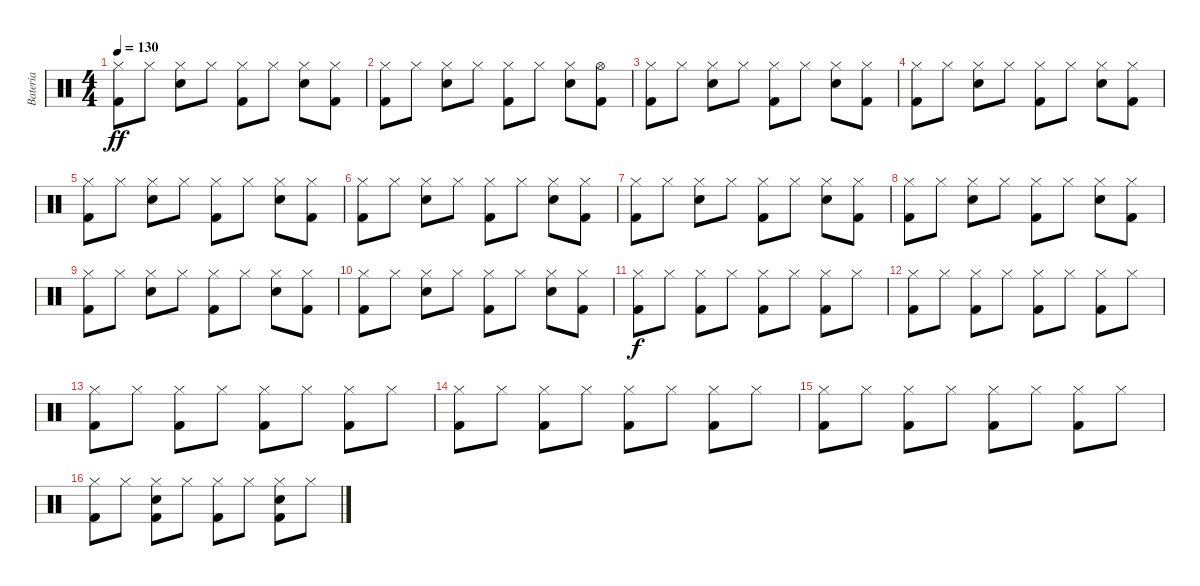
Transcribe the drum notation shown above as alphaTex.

\track ("Bateria" "Bateria") {instrument percussion}
\staff {score}
\articulation defaults
\ts (4 4)
\tempo 130
\clef neutral
\ks c
("Hi-Hat (closed)" "Kick (hit) 2").8{dy ff} "Hi-Hat (closed)".8 ("Hi-Hat (closed)" "Snare (hit) 2").8 "Hi-Hat (closed)".8 ("Hi-Hat (closed)" "Kick (hit) 2").8 "Hi-Hat (closed)".8 ("Hi-Hat (closed)" "Snare (hit) 2").8 ("Hi-Hat (closed)" "Kick (hit) 2").8 |
("Hi-Hat (closed)" "Kick (hit) 2").8 "Hi-Hat (closed)".8 ("Hi-Hat (closed)" "Snare (hit) 2").8 "Hi-Hat (closed)".8 ("Hi-Hat (closed)" "Kick (hit) 2").8 "Hi-Hat (closed)".8 ("Hi-Hat (closed)" "Snare (hit) 2").8 ("Hi-Hat (open)" "Kick (hit) 2").8 |
("Hi-Hat (closed)" "Kick (hit) 2").8 "Hi-Hat (closed)".8 ("Hi-Hat (closed)" "Snare (hit) 2").8 "Hi-Hat (closed)".8 ("Hi-Hat (closed)" "Kick (hit) 2").8 "Hi-Hat (closed)".8 ("Hi-Hat (closed)" "Snare (hit) 2").8 ("Hi-Hat (closed)" "Kick (hit) 2").8 |
("Hi-Hat (closed)" "Kick (hit) 2").8 "Hi-Hat (closed)".8 ("Hi-Hat (closed)" "Snare (hit) 2").8 "Hi-Hat (closed)".8 ("Hi-Hat (closed)" "Kick (hit) 2").8 "Hi-Hat (closed)".8 ("Hi-Hat (closed)" "Snare (hit) 2").8 ("Hi-Hat (closed)" "Kick (hit) 2").8 |
("Hi-Hat (closed)" "Kick (hit) 2").8 "Hi-Hat (closed)".8 ("Hi-Hat (closed)" "Snare (hit) 2").8 "Hi-Hat (closed)".8 ("Hi-Hat (closed)" "Kick (hit) 2").8 "Hi-Hat (closed)".8 ("Hi-Hat (closed)" "Snare (hit) 2").8 ("Hi-Hat (closed)" "Kick (hit) 2").8 |
("Hi-Hat (closed)" "Kick (hit) 2").8 "Hi-Hat (closed)".8 ("Hi-Hat (closed)" "Snare (hit) 2").8 "Hi-Hat (closed)".8 ("Hi-Hat (closed)" "Kick (hit) 2").8 "Hi-Hat (closed)".8 ("Hi-Hat (closed)" "Snare (hit) 2").8 ("Hi-Hat (closed)" "Kick (hit) 2").8 |
("Hi-Hat (closed)" "Kick (hit) 2").8 "Hi-Hat (closed)".8 ("Hi-Hat (closed)" "Snare (hit) 2").8 "Hi-Hat (closed)".8 ("Hi-Hat (closed)" "Kick (hit) 2").8 "Hi-Hat (closed)".8 ("Hi-Hat (closed)" "Snare (hit) 2").8 ("Hi-Hat (closed)" "Kick (hit) 2").8 |
("Hi-Hat (closed)" "Kick (hit) 2").8 "Hi-Hat (closed)".8 ("Hi-Hat (closed)" "Snare (hit) 2").8 "Hi-Hat (closed)".8 ("Hi-Hat (closed)" "Kick (hit) 2").8 "Hi-Hat (closed)".8 ("Hi-Hat (closed)" "Snare (hit) 2").8 ("Hi-Hat (closed)" "Kick (hit) 2").8 |
("Hi-Hat (closed)" "Kick (hit) 2").8 "Hi-Hat (closed)".8 ("Hi-Hat (closed)" "Snare (hit) 2").8 "Hi-Hat (closed)".8 ("Hi-Hat (closed)" "Kick (hit) 2").8 "Hi-Hat (closed)".8 ("Hi-Hat (closed)" "Snare (hit) 2").8 ("Hi-Hat (closed)" "Kick (hit) 2").8 |
("Hi-Hat (closed)" "Kick (hit) 2").8 "Hi-Hat (closed)".8 ("Hi-Hat (closed)" "Snare (hit) 2").8 "Hi-Hat (closed)".8 ("Hi-Hat (closed)" "Kick (hit) 2").8 "Hi-Hat (closed)".8 ("Hi-Hat (closed)" "Snare (hit) 2").8 ("Hi-Hat (closed)" "Kick (hit) 2").8 |
("Hi-Hat (closed)" "Kick (hit) 2").8{dy f} "Hi-Hat (closed)".8 ("Hi-Hat (closed)" "Kick (hit) 2").8 "Hi-Hat (closed)".8 ("Hi-Hat (closed)" "Kick (hit) 2").8 "Hi-Hat (closed)".8 ("Hi-Hat (closed)" "Kick (hit) 2").8 "Hi-Hat (closed)".8 |
("Hi-Hat (closed)" "Kick (hit) 2").8 "Hi-Hat (closed)".8 ("Hi-Hat (closed)" "Kick (hit) 2").8 "Hi-Hat (closed)".8 ("Hi-Hat (closed)" "Kick (hit) 2").8 "Hi-Hat (closed)".8 ("Hi-Hat (closed)" "Kick (hit) 2").8 "Hi-Hat (closed)".8 |
("Hi-Hat (closed)" "Kick (hit) 2").8 "Hi-Hat (closed)".8 ("Hi-Hat (closed)" "Kick (hit) 2").8 "Hi-Hat (closed)".8 ("Hi-Hat (closed)" "Kick (hit) 2").8 "Hi-Hat (closed)".8 ("Hi-Hat (closed)" "Kick (hit) 2").8 "Hi-Hat (closed)".8 |
("Hi-Hat (closed)" "Kick (hit) 2").8 "Hi-Hat (closed)".8 ("Hi-Hat (closed)" "Kick (hit) 2").8 "Hi-Hat (closed)".8 ("Hi-Hat (closed)" "Kick (hit) 2").8 "Hi-Hat (closed)".8 ("Hi-Hat (closed)" "Kick (hit) 2").8 "Hi-Hat (closed)".8 |
("Hi-Hat (closed)" "Kick (hit) 2").8 "Hi-Hat (closed)".8 ("Hi-Hat (closed)" "Kick (hit) 2").8 "Hi-Hat (closed)".8 ("Hi-Hat (closed)" "Kick (hit) 2").8 "Hi-Hat (closed)".8 ("Hi-Hat (closed)" "Kick (hit) 2").8 "Hi-Hat (closed)".8 |
("Hi-Hat (closed)" "Kick (hit) 2").8 "Hi-Hat (closed)".8 ("Hi-Hat (closed)" "Snare (hit) 2" "Kick (hit) 2").8 "Hi-Hat (closed)".8 ("Hi-Hat (closed)" "Kick (hit) 2").8 "Hi-Hat (closed)".8 ("Hi-Hat (closed)" "Snare (hit) 2" "Kick (hit) 2").8 "Hi-Hat (closed)".8
